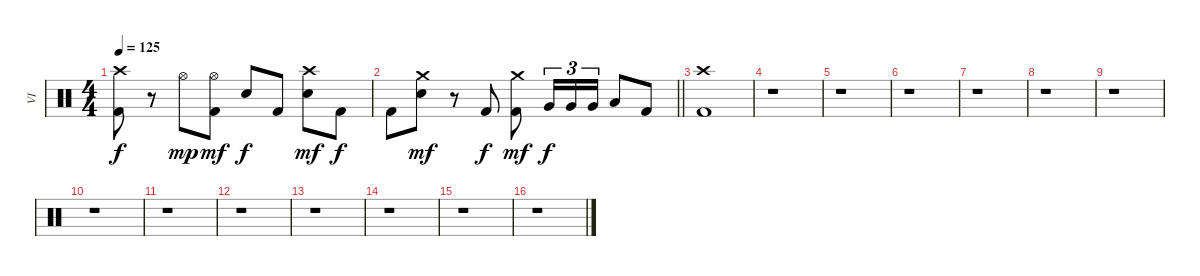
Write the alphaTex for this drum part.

\track ("VI" "VI") {instrument percussion}
\staff {score}
\articulation defaults
\ts (4 4)
\tempo 125
\clef neutral
\ks c
("Crash high (hit)" "Kick (hit) 2").8{dy f} r.8 "Hi-Hat (open)".8{dy mp} ("Hi-Hat (open)" "Kick (hit) 2").8{dy mf} "Electric Snare (hit)".8{dy f} "Kick (hit) 2".8 ("Crash high (hit)" "Electric Snare (hit)").8{dy mf} "Kick (hit) 2".8{dy f} |
\barLineRight lightlight "Kick (hit) 2".8
("Crash medium (hit)" "Electric Snare (hit)").8{dy mf} r.8 "Kick (hit) 2".8{dy f} ("Crash medium (hit)" "Kick (hit) 2").8{dy mf} "Very Low Tom (hit)".16{tu (3 2) dy f} "Very Low Tom (hit)".16{tu (3 2)} "Very Low Tom (hit)".16{tu (3 2)} "Low Floor Tom (hit)".8 "Kick (hit) 2".8 |
\section ("" "")
("Crash high (hit)" "Kick (hit) 2").1 |
r.1 |
r.1 |
r.1 |
r.1 |
r.1 |
r.1 |
r.1 |
r.1 |
r.1 |
r.1 |
r.1 |
r.1 |
r.1
